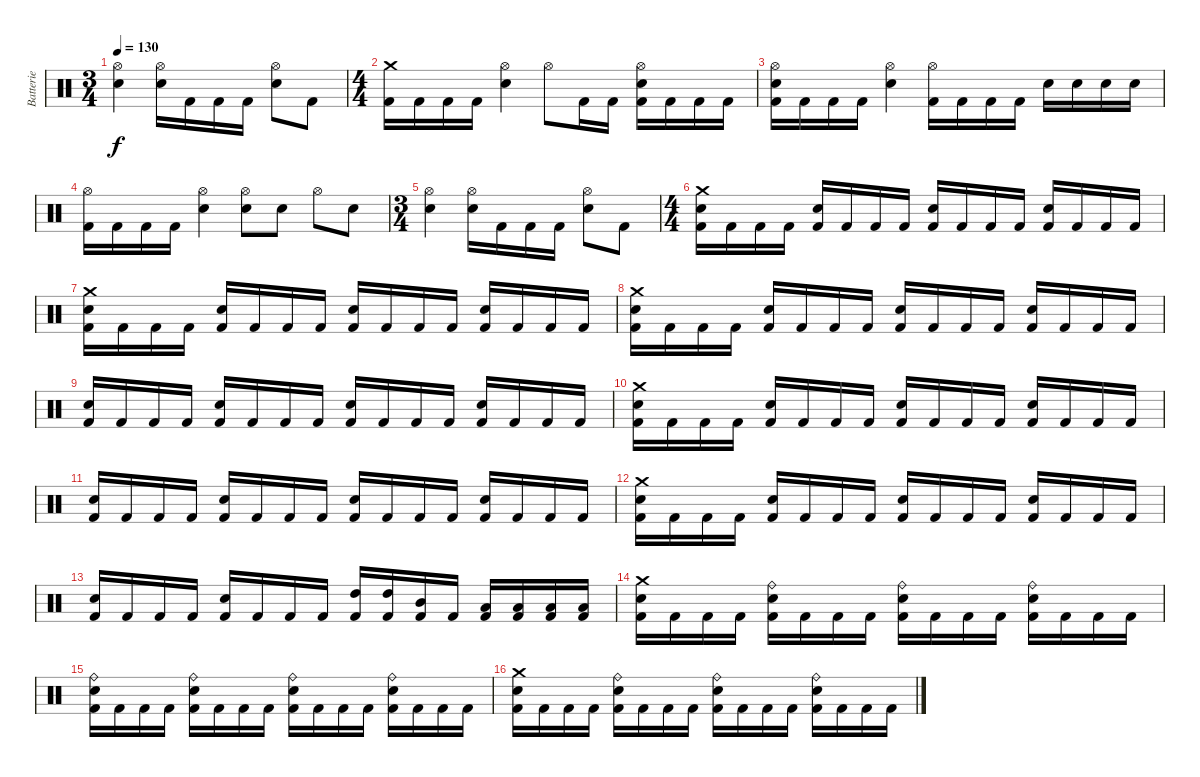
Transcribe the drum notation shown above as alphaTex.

\track ("Batterie" "Batterie") {instrument percussion}
\staff {score}
\articulation defaults
\ts (3 4)
\tempo 130
\clef neutral
\ks c
("Hi-Hat (open)" "Snare (hit) 2").4{dy f} ("Hi-Hat (open)" "Snare (hit) 2").16 "Kick (hit) 2".16 "Kick (hit) 2".16 "Kick (hit) 2".16 ("Hi-Hat (open)" "Snare (hit) 2").8 "Kick (hit) 2".8 |
\ts (4 4)
("Crash medium (hit)" "Kick (hit) 2").16 "Kick (hit) 2".16 "Kick (hit) 2".16 "Kick (hit) 2".16 ("Hi-Hat (open)" "Snare (hit) 2").4 "Hi-Hat (open)".8 "Kick (hit) 2".16 "Kick (hit) 2".16 ("Hi-Hat (open)" "Snare (hit) 2" "Kick (hit) 2").16 "Kick (hit) 2".16 "Kick (hit) 2".16 "Kick (hit) 2".16 |
("Hi-Hat (open)" "Snare (hit) 2" "Kick (hit) 2").16 "Kick (hit) 2".16 "Kick (hit) 2".16 "Kick (hit) 2".16 ("Hi-Hat (open)" "Snare (hit) 2").4 ("Hi-Hat (open)" "Kick (hit) 2").16 "Kick (hit) 2".16 "Kick (hit) 2".16 "Kick (hit) 2".16 "Snare (hit) 2".16 "Snare (hit) 2".16 "Snare (hit) 2".16 "Snare (hit) 2".16 |
("Hi-Hat (open)" "Kick (hit) 2").16 "Kick (hit) 2".16 "Kick (hit) 2".16 "Kick (hit) 2".16 ("Hi-Hat (open)" "Snare (hit) 2").4 ("Hi-Hat (open)" "Snare (hit) 2").8 "Snare (hit) 2".8 "Hi-Hat (open)".8 "Snare (hit) 2".8 |
\ts (3 4)
("Hi-Hat (open)" "Snare (hit) 2").4 ("Hi-Hat (open)" "Snare (hit) 2").16 "Kick (hit) 2".16 "Kick (hit) 2".16 "Kick (hit) 2".16 ("Hi-Hat (open)" "Snare (hit) 2").8 "Kick (hit) 2".8 |
\ts (4 4)
("Crash medium (hit)" "Snare (hit) 2" "Kick (hit) 2").16 "Kick (hit) 2".16 "Kick (hit) 2".16 "Kick (hit) 2".16 ("Snare (hit) 2" "Kick (hit) 2").16 "Kick (hit) 2".16 "Kick (hit) 2".16 "Kick (hit) 2".16 ("Snare (hit) 2" "Kick (hit) 2").16 "Kick (hit) 2".16 "Kick (hit) 2".16 "Kick (hit) 2".16 ("Snare (hit) 2" "Kick (hit) 2").16 "Kick (hit) 2".16 "Kick (hit) 2".16 "Kick (hit) 2".16 |
("Crash medium (hit)" "Snare (hit) 2" "Kick (hit) 2").16 "Kick (hit) 2".16 "Kick (hit) 2".16 "Kick (hit) 2".16 ("Snare (hit) 2" "Kick (hit) 2").16 "Kick (hit) 2".16 "Kick (hit) 2".16 "Kick (hit) 2".16 ("Snare (hit) 2" "Kick (hit) 2").16 "Kick (hit) 2".16 "Kick (hit) 2".16 "Kick (hit) 2".16 ("Snare (hit) 2" "Kick (hit) 2").16 "Kick (hit) 2".16 "Kick (hit) 2".16 "Kick (hit) 2".16 |
("Crash medium (hit)" "Snare (hit) 2" "Kick (hit) 2").16 "Kick (hit) 2".16 "Kick (hit) 2".16 "Kick (hit) 2".16 ("Snare (hit) 2" "Kick (hit) 2").16 "Kick (hit) 2".16 "Kick (hit) 2".16 "Kick (hit) 2".16 ("Snare (hit) 2" "Kick (hit) 2").16 "Kick (hit) 2".16 "Kick (hit) 2".16 "Kick (hit) 2".16 ("Snare (hit) 2" "Kick (hit) 2").16 "Kick (hit) 2".16 "Kick (hit) 2".16 "Kick (hit) 2".16 |
("Snare (hit) 2" "Kick (hit) 2").16 "Kick (hit) 2".16 "Kick (hit) 2".16 "Kick (hit) 2".16 ("Snare (hit) 2" "Kick (hit) 2").16 "Kick (hit) 2".16 "Kick (hit) 2".16 "Kick (hit) 2".16 ("Snare (hit) 2" "Kick (hit) 2").16 "Kick (hit) 2".16 "Kick (hit) 2".16 "Kick (hit) 2".16 ("Snare (hit) 2" "Kick (hit) 2").16 "Kick (hit) 2".16 "Kick (hit) 2".16 "Kick (hit) 2".16 |
("Crash medium (hit)" "Snare (hit) 2" "Kick (hit) 2").16 "Kick (hit) 2".16 "Kick (hit) 2".16 "Kick (hit) 2".16 ("Snare (hit) 2" "Kick (hit) 2").16 "Kick (hit) 2".16 "Kick (hit) 2".16 "Kick (hit) 2".16 ("Snare (hit) 2" "Kick (hit) 2").16 "Kick (hit) 2".16 "Kick (hit) 2".16 "Kick (hit) 2".16 ("Snare (hit) 2" "Kick (hit) 2").16 "Kick (hit) 2".16 "Kick (hit) 2".16 "Kick (hit) 2".16 |
("Snare (hit) 2" "Kick (hit) 2").16 "Kick (hit) 2".16 "Kick (hit) 2".16 "Kick (hit) 2".16 ("Snare (hit) 2" "Kick (hit) 2").16 "Kick (hit) 2".16 "Kick (hit) 2".16 "Kick (hit) 2".16 ("Snare (hit) 2" "Kick (hit) 2").16 "Kick (hit) 2".16 "Kick (hit) 2".16 "Kick (hit) 2".16 ("Snare (hit) 2" "Kick (hit) 2").16 "Kick (hit) 2".16 "Kick (hit) 2".16 "Kick (hit) 2".16 |
("Crash medium (hit)" "Snare (hit) 2" "Kick (hit) 2").16 "Kick (hit) 2".16 "Kick (hit) 2".16 "Kick (hit) 2".16 ("Snare (hit) 2" "Kick (hit) 2").16 "Kick (hit) 2".16 "Kick (hit) 2".16 "Kick (hit) 2".16 ("Snare (hit) 2" "Kick (hit) 2").16 "Kick (hit) 2".16 "Kick (hit) 2".16 "Kick (hit) 2".16 ("Snare (hit) 2" "Kick (hit) 2").16 "Kick (hit) 2".16 "Kick (hit) 2".16 "Kick (hit) 2".16 |
("Snare (hit) 2" "Kick (hit) 2").16 "Kick (hit) 2".16 "Kick (hit) 2".16 "Kick (hit) 2".16 ("Snare (hit) 2" "Kick (hit) 2").16 "Kick (hit) 2".16 "Kick (hit) 2".16 "Kick (hit) 2".16 ("High Tom (hit)" "Kick (hit) 2").16 ("High Tom (hit)" "Kick (hit) 2").16 ("Mid Tom (hit)" "Kick (hit) 2").16 "Kick (hit) 2".16 ("Low Tom (hit)" "Kick (hit) 2").16 ("Low Tom (hit)" "Kick (hit) 2").16 ("Low Floor Tom (hit)" "Kick (hit) 2").16 ("Low Floor Tom (hit)" "Kick (hit) 2").16 |
("Crash medium (hit)" "Snare (hit) 2" "Kick (hit) 2").16 "Kick (hit) 2".16 "Kick (hit) 2".16 "Kick (hit) 2".16 ("Ride (bell)" "Snare (hit) 2" "Kick (hit) 2").16 "Kick (hit) 2".16 "Kick (hit) 2".16 "Kick (hit) 2".16 ("Ride (bell)" "Snare (hit) 2" "Kick (hit) 2").16 "Kick (hit) 2".16 "Kick (hit) 2".16 "Kick (hit) 2".16 ("Ride (bell)" "Snare (hit) 2" "Kick (hit) 2").16 "Kick (hit) 2".16 "Kick (hit) 2".16 "Kick (hit) 2".16 |
("Ride (bell)" "Snare (hit) 2" "Kick (hit) 2").16 "Kick (hit) 2".16 "Kick (hit) 2".16 "Kick (hit) 2".16 ("Ride (bell)" "Snare (hit) 2" "Kick (hit) 2").16 "Kick (hit) 2".16 "Kick (hit) 2".16 "Kick (hit) 2".16 ("Ride (bell)" "Snare (hit) 2" "Kick (hit) 2").16 "Kick (hit) 2".16 "Kick (hit) 2".16 "Kick (hit) 2".16 ("Ride (bell)" "Snare (hit) 2" "Kick (hit) 2").16 "Kick (hit) 2".16 "Kick (hit) 2".16 "Kick (hit) 2".16 |
("Crash medium (hit)" "Snare (hit) 2" "Kick (hit) 2").16 "Kick (hit) 2".16 "Kick (hit) 2".16 "Kick (hit) 2".16 ("Ride (bell)" "Snare (hit) 2" "Kick (hit) 2").16 "Kick (hit) 2".16 "Kick (hit) 2".16 "Kick (hit) 2".16 ("Ride (bell)" "Snare (hit) 2" "Kick (hit) 2").16 "Kick (hit) 2".16 "Kick (hit) 2".16 "Kick (hit) 2".16 ("Ride (bell)" "Snare (hit) 2" "Kick (hit) 2").16 "Kick (hit) 2".16 "Kick (hit) 2".16 "Kick (hit) 2".16
